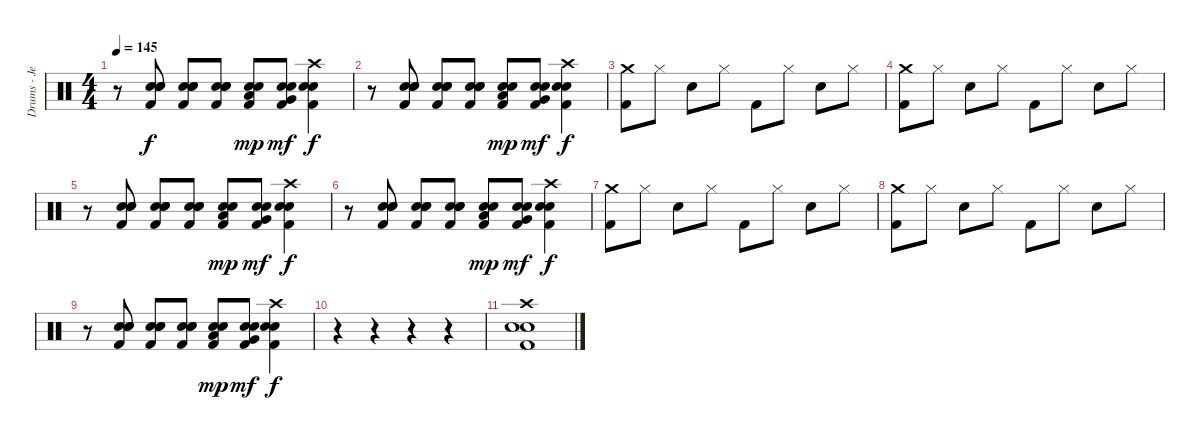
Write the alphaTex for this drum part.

\track ("Drums - Jeremiah Green" "Drums - Je") {instrument percussion}
\staff {score}
\articulation defaults
\ts (4 4)
\tempo 145
\clef neutral
\ks c
r.8{dy f} ("Snare (hit) 2" "Electric Snare (hit)" "Electric Snare (hit)" "Kick (hit) 2").8 ("Snare (hit) 2" "Electric Snare (hit)" "Electric Snare (hit)" "Kick (hit) 2").8 ("Snare (hit) 2" "Electric Snare (hit)" "Electric Snare (hit)" "Kick (hit) 2").8 ("Snare (hit) 2" "Low Tom (hit)" "Electric Snare (hit)" "Kick (hit) 2").8{dy mp} ("Snare (hit) 2" "Very Low Tom (hit)" "Electric Snare (hit)" "Kick (hit) 2").8{dy mf} ("Crash high (hit)" "Snare (hit) 2" "Electric Snare (hit)" "Kick (hit) 2").4{dy f} |
r.8 ("Snare (hit) 2" "Electric Snare (hit)" "Electric Snare (hit)" "Kick (hit) 2").8 ("Snare (hit) 2" "Electric Snare (hit)" "Electric Snare (hit)" "Kick (hit) 2").8 ("Snare (hit) 2" "Electric Snare (hit)" "Electric Snare (hit)" "Kick (hit) 2").8 ("Snare (hit) 2" "Low Tom (hit)" "Electric Snare (hit)" "Kick (hit) 2").8{dy mp} ("Snare (hit) 2" "Very Low Tom (hit)" "Electric Snare (hit)" "Kick (hit) 2").8{dy mf} ("Crash high (hit)" "Snare (hit) 2" "Electric Snare (hit)" "Kick (hit) 2").4{dy f} |
("Crash medium (hit)" "Kick (hit) 2").8 "Hi-Hat (closed)".8 "Electric Snare (hit)".8 "Hi-Hat (closed)".8 "Kick (hit) 2".8 "Hi-Hat (closed)".8 "Electric Snare (hit)".8 "Hi-Hat (closed)".8 |
("Crash medium (hit)" "Kick (hit) 2").8 "Hi-Hat (closed)".8 "Electric Snare (hit)".8 "Hi-Hat (closed)".8 "Kick (hit) 2".8 "Hi-Hat (closed)".8 "Electric Snare (hit)".8 "Hi-Hat (closed)".8 |
r.8 ("Snare (hit) 2" "Electric Snare (hit)" "Electric Snare (hit)" "Kick (hit) 2").8 ("Snare (hit) 2" "Electric Snare (hit)" "Electric Snare (hit)" "Kick (hit) 2").8 ("Snare (hit) 2" "Electric Snare (hit)" "Electric Snare (hit)" "Kick (hit) 2").8 ("Snare (hit) 2" "Low Tom (hit)" "Electric Snare (hit)" "Kick (hit) 2").8{dy mp} ("Snare (hit) 2" "Very Low Tom (hit)" "Electric Snare (hit)" "Kick (hit) 2").8{dy mf} ("Crash high (hit)" "Snare (hit) 2" "Electric Snare (hit)" "Kick (hit) 2").4{dy f} |
r.8 ("Snare (hit) 2" "Electric Snare (hit)" "Electric Snare (hit)" "Kick (hit) 2").8 ("Snare (hit) 2" "Electric Snare (hit)" "Electric Snare (hit)" "Kick (hit) 2").8 ("Snare (hit) 2" "Electric Snare (hit)" "Electric Snare (hit)" "Kick (hit) 2").8 ("Snare (hit) 2" "Low Tom (hit)" "Electric Snare (hit)" "Kick (hit) 2").8{dy mp} ("Snare (hit) 2" "Very Low Tom (hit)" "Electric Snare (hit)" "Kick (hit) 2").8{dy mf} ("Crash high (hit)" "Snare (hit) 2" "Electric Snare (hit)" "Kick (hit) 2").4{dy f} |
("Crash medium (hit)" "Kick (hit) 2").8 "Hi-Hat (closed)".8 "Electric Snare (hit)".8 "Hi-Hat (closed)".8 "Kick (hit) 2".8 "Hi-Hat (closed)".8 "Electric Snare (hit)".8 "Hi-Hat (closed)".8 |
("Crash medium (hit)" "Kick (hit) 2").8 "Hi-Hat (closed)".8 "Electric Snare (hit)".8 "Hi-Hat (closed)".8 "Kick (hit) 2".8 "Hi-Hat (closed)".8 "Electric Snare (hit)".8 "Hi-Hat (closed)".8 |
r.8 ("Snare (hit) 2" "Electric Snare (hit)" "Electric Snare (hit)" "Kick (hit) 2").8 ("Snare (hit) 2" "Electric Snare (hit)" "Electric Snare (hit)" "Kick (hit) 2").8 ("Snare (hit) 2" "Electric Snare (hit)" "Electric Snare (hit)" "Kick (hit) 2").8 ("Snare (hit) 2" "Low Tom (hit)" "Electric Snare (hit)" "Kick (hit) 2").8{dy mp} ("Snare (hit) 2" "Very Low Tom (hit)" "Electric Snare (hit)" "Kick (hit) 2").8{dy mf} ("Crash high (hit)" "Snare (hit) 2" "Electric Snare (hit)" "Kick (hit) 2").4{dy f} |
r.4 r.4 r.4 r.4 |
("Crash high (hit)" "Snare (hit) 2" "Electric Snare (hit)" "Kick (hit) 2").1
